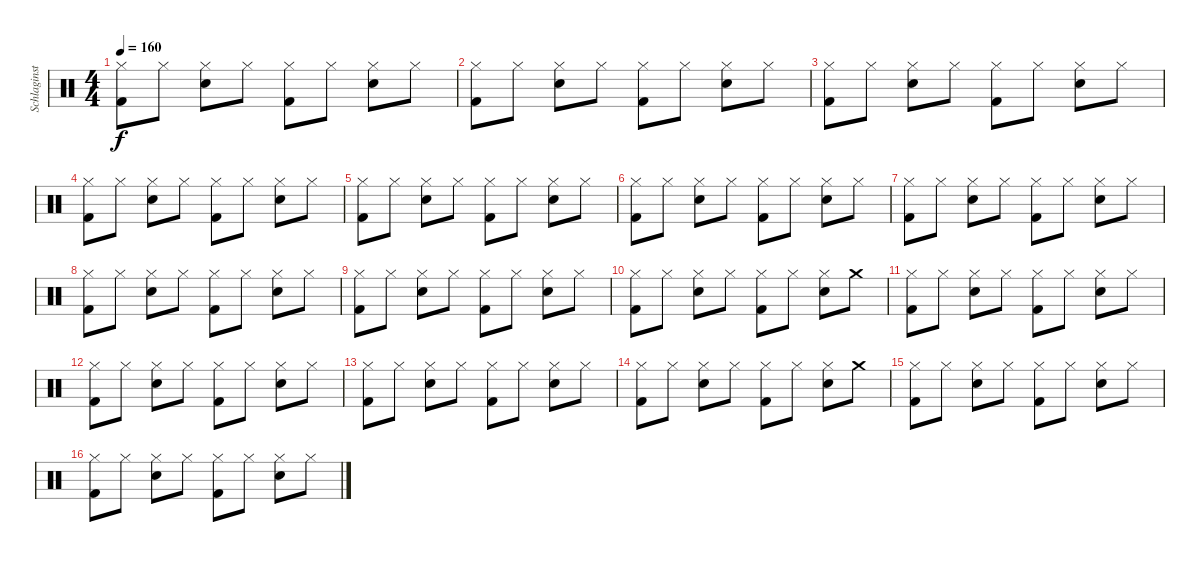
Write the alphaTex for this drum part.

\track ("Schlaginstrumente - Auswahl" "Schlaginst") {instrument percussion}
\staff {score}
\articulation defaults
\ts (4 4)
\tempo 160
\clef neutral
\ks c
("Hi-Hat (closed)" "Kick (hit) 2").8{dy f} "Hi-Hat (closed)".8 ("Hi-Hat (closed)" "Snare (hit) 2").8 "Hi-Hat (closed)".8 ("Hi-Hat (closed)" "Kick (hit) 2").8 "Hi-Hat (closed)".8 ("Hi-Hat (closed)" "Snare (hit) 2").8 "Hi-Hat (closed)".8 |
("Hi-Hat (closed)" "Kick (hit) 2").8 "Hi-Hat (closed)".8 ("Hi-Hat (closed)" "Snare (hit) 2").8 "Hi-Hat (closed)".8 ("Hi-Hat (closed)" "Kick (hit) 2").8 "Hi-Hat (closed)".8 ("Hi-Hat (closed)" "Snare (hit) 2").8 "Hi-Hat (closed)".8 |
("Hi-Hat (closed)" "Kick (hit) 2").8 "Hi-Hat (closed)".8 ("Hi-Hat (closed)" "Snare (hit) 2").8 "Hi-Hat (closed)".8 ("Hi-Hat (closed)" "Kick (hit) 2").8 "Hi-Hat (closed)".8 ("Hi-Hat (closed)" "Snare (hit) 2").8 "Hi-Hat (closed)".8 |
("Hi-Hat (closed)" "Kick (hit) 2").8 "Hi-Hat (closed)".8 ("Hi-Hat (closed)" "Snare (hit) 2").8 "Hi-Hat (closed)".8 ("Hi-Hat (closed)" "Kick (hit) 2").8 "Hi-Hat (closed)".8 ("Hi-Hat (closed)" "Snare (hit) 2").8 "Hi-Hat (closed)".8 |
("Hi-Hat (closed)" "Kick (hit) 2").8 "Hi-Hat (closed)".8 ("Hi-Hat (closed)" "Snare (hit) 2").8 "Hi-Hat (closed)".8 ("Hi-Hat (closed)" "Kick (hit) 2").8 "Hi-Hat (closed)".8 ("Hi-Hat (closed)" "Snare (hit) 2").8 "Hi-Hat (closed)".8 |
("Hi-Hat (closed)" "Kick (hit) 2").8 "Hi-Hat (closed)".8 ("Hi-Hat (closed)" "Snare (hit) 2").8 "Hi-Hat (closed)".8 ("Hi-Hat (closed)" "Kick (hit) 2").8 "Hi-Hat (closed)".8 ("Hi-Hat (closed)" "Snare (hit) 2").8 "Hi-Hat (closed)".8 |
("Hi-Hat (closed)" "Kick (hit) 2").8 "Hi-Hat (closed)".8 ("Hi-Hat (closed)" "Snare (hit) 2").8 "Hi-Hat (closed)".8 ("Hi-Hat (closed)" "Kick (hit) 2").8 "Hi-Hat (closed)".8 ("Hi-Hat (closed)" "Snare (hit) 2").8 "Hi-Hat (closed)".8 |
("Hi-Hat (closed)" "Kick (hit) 2").8 "Hi-Hat (closed)".8 ("Hi-Hat (closed)" "Snare (hit) 2").8 "Hi-Hat (closed)".8 ("Hi-Hat (closed)" "Kick (hit) 2").8 "Hi-Hat (closed)".8 ("Hi-Hat (closed)" "Snare (hit) 2").8 "Hi-Hat (closed)".8 |
("Hi-Hat (closed)" "Kick (hit) 2").8 "Hi-Hat (closed)".8 ("Hi-Hat (closed)" "Snare (hit) 2").8 "Hi-Hat (closed)".8 ("Hi-Hat (closed)" "Kick (hit) 2").8 "Hi-Hat (closed)".8 ("Hi-Hat (closed)" "Snare (hit) 2").8 "Hi-Hat (closed)".8 |
("Hi-Hat (closed)" "Kick (hit) 2").8 "Hi-Hat (closed)".8 ("Hi-Hat (closed)" "Snare (hit) 2").8 "Hi-Hat (closed)".8 ("Hi-Hat (closed)" "Kick (hit) 2").8 "Hi-Hat (closed)".8 ("Hi-Hat (closed)" "Snare (hit) 2").8 "Crash medium (hit)".8 |
("Hi-Hat (closed)" "Kick (hit) 2").8 "Hi-Hat (closed)".8 ("Hi-Hat (closed)" "Snare (hit) 2").8 "Hi-Hat (closed)".8 ("Hi-Hat (closed)" "Kick (hit) 2").8 "Hi-Hat (closed)".8 ("Hi-Hat (closed)" "Snare (hit) 2").8 "Hi-Hat (closed)".8 |
("Hi-Hat (closed)" "Kick (hit) 2").8 "Hi-Hat (closed)".8 ("Hi-Hat (closed)" "Snare (hit) 2").8 "Hi-Hat (closed)".8 ("Hi-Hat (closed)" "Kick (hit) 2").8 "Hi-Hat (closed)".8 ("Hi-Hat (closed)" "Snare (hit) 2").8 "Hi-Hat (closed)".8 |
("Hi-Hat (closed)" "Kick (hit) 2").8 "Hi-Hat (closed)".8 ("Hi-Hat (closed)" "Snare (hit) 2").8 "Hi-Hat (closed)".8 ("Hi-Hat (closed)" "Kick (hit) 2").8 "Hi-Hat (closed)".8 ("Hi-Hat (closed)" "Snare (hit) 2").8 "Hi-Hat (closed)".8 |
("Hi-Hat (closed)" "Kick (hit) 2").8 "Hi-Hat (closed)".8 ("Hi-Hat (closed)" "Snare (hit) 2").8 "Hi-Hat (closed)".8 ("Hi-Hat (closed)" "Kick (hit) 2").8 "Hi-Hat (closed)".8 ("Hi-Hat (closed)" "Snare (hit) 2").8 "Crash medium (hit)".8 |
("Hi-Hat (closed)" "Kick (hit) 2").8 "Hi-Hat (closed)".8 ("Hi-Hat (closed)" "Snare (hit) 2").8 "Hi-Hat (closed)".8 ("Hi-Hat (closed)" "Kick (hit) 2").8 "Hi-Hat (closed)".8 ("Hi-Hat (closed)" "Snare (hit) 2").8 "Hi-Hat (closed)".8 |
("Hi-Hat (closed)" "Kick (hit) 2").8 "Hi-Hat (closed)".8 ("Hi-Hat (closed)" "Snare (hit) 2").8 "Hi-Hat (closed)".8 ("Hi-Hat (closed)" "Kick (hit) 2").8 "Hi-Hat (closed)".8 ("Hi-Hat (closed)" "Snare (hit) 2").8 "Hi-Hat (closed)".8
